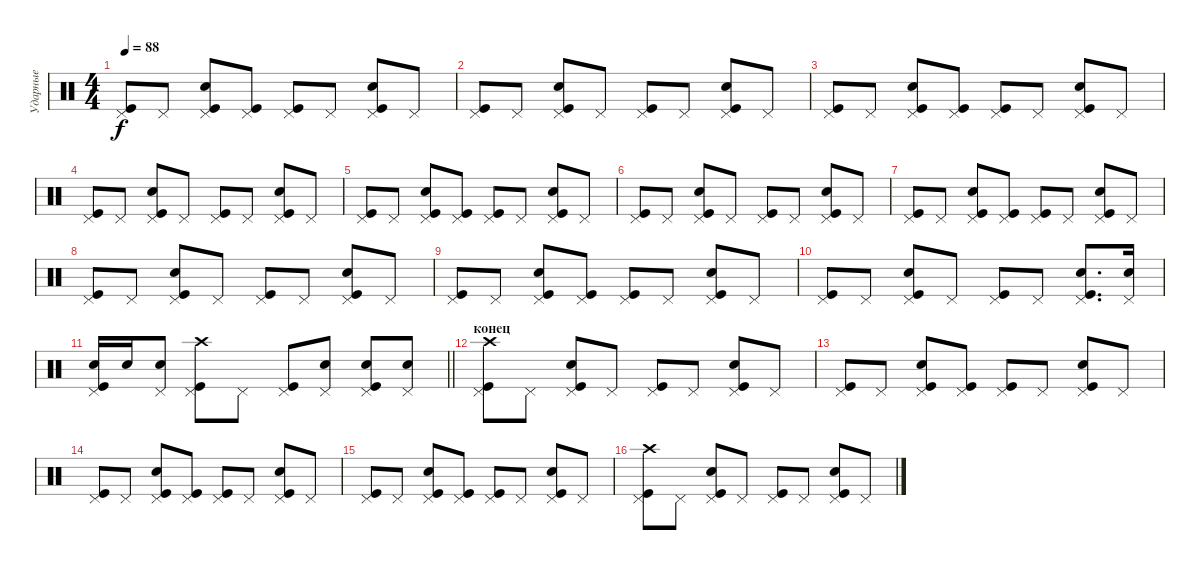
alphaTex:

\track ("Ударные" "Ударные") {instrument percussion}
\staff {score}
\articulation defaults
\ts (4 4)
\tempo 88
\clef neutral
\ks c
("Pedal Hi-Hat (hit)" "Kick (hit)").8{dy f} "Pedal Hi-Hat (hit)".8 ("Pedal Hi-Hat (hit)" "Kick (hit)" "Snare (hit) 2").8 ("Pedal Hi-Hat (hit)" "Kick (hit)").8 ("Pedal Hi-Hat (hit)" "Kick (hit)").8 "Pedal Hi-Hat (hit)".8 ("Pedal Hi-Hat (hit)" "Kick (hit)" "Snare (hit) 2").8 "Pedal Hi-Hat (hit)".8 |
("Pedal Hi-Hat (hit)" "Kick (hit)").8 "Pedal Hi-Hat (hit)".8 ("Pedal Hi-Hat (hit)" "Kick (hit)" "Snare (hit) 2").8 "Pedal Hi-Hat (hit)".8 ("Pedal Hi-Hat (hit)" "Kick (hit)").8 "Pedal Hi-Hat (hit)".8 ("Pedal Hi-Hat (hit)" "Kick (hit)" "Snare (hit) 2").8 "Pedal Hi-Hat (hit)".8 |
("Pedal Hi-Hat (hit)" "Kick (hit)").8 "Pedal Hi-Hat (hit)".8 ("Pedal Hi-Hat (hit)" "Kick (hit)" "Snare (hit) 2").8 ("Pedal Hi-Hat (hit)" "Kick (hit)").8 ("Pedal Hi-Hat (hit)" "Kick (hit)").8 "Pedal Hi-Hat (hit)".8 ("Pedal Hi-Hat (hit)" "Kick (hit)" "Snare (hit) 2").8 "Pedal Hi-Hat (hit)".8 |
("Pedal Hi-Hat (hit)" "Kick (hit)").8 "Pedal Hi-Hat (hit)".8 ("Pedal Hi-Hat (hit)" "Kick (hit)" "Snare (hit) 2").8 "Pedal Hi-Hat (hit)".8 ("Pedal Hi-Hat (hit)" "Kick (hit)").8 "Pedal Hi-Hat (hit)".8 ("Pedal Hi-Hat (hit)" "Kick (hit)" "Snare (hit) 2").8 "Pedal Hi-Hat (hit)".8 |
("Pedal Hi-Hat (hit)" "Kick (hit)").8 "Pedal Hi-Hat (hit)".8 ("Pedal Hi-Hat (hit)" "Kick (hit)" "Snare (hit) 2").8 ("Pedal Hi-Hat (hit)" "Kick (hit)").8 ("Pedal Hi-Hat (hit)" "Kick (hit)").8 "Pedal Hi-Hat (hit)".8 ("Pedal Hi-Hat (hit)" "Kick (hit)" "Snare (hit) 2").8 "Pedal Hi-Hat (hit)".8 |
("Pedal Hi-Hat (hit)" "Kick (hit)").8 "Pedal Hi-Hat (hit)".8 ("Pedal Hi-Hat (hit)" "Kick (hit)" "Snare (hit) 2").8 "Pedal Hi-Hat (hit)".8 ("Pedal Hi-Hat (hit)" "Kick (hit)").8 "Pedal Hi-Hat (hit)".8 ("Pedal Hi-Hat (hit)" "Kick (hit)" "Snare (hit) 2").8 "Pedal Hi-Hat (hit)".8 |
("Pedal Hi-Hat (hit)" "Kick (hit)").8 "Pedal Hi-Hat (hit)".8 ("Pedal Hi-Hat (hit)" "Kick (hit)" "Snare (hit) 2").8 ("Pedal Hi-Hat (hit)" "Kick (hit)").8 ("Pedal Hi-Hat (hit)" "Kick (hit)").8 "Pedal Hi-Hat (hit)".8 ("Pedal Hi-Hat (hit)" "Kick (hit)" "Snare (hit) 2").8 "Pedal Hi-Hat (hit)".8 |
("Pedal Hi-Hat (hit)" "Kick (hit)").8 "Pedal Hi-Hat (hit)".8 ("Pedal Hi-Hat (hit)" "Kick (hit)" "Snare (hit) 2").8 "Pedal Hi-Hat (hit)".8 ("Pedal Hi-Hat (hit)" "Kick (hit)").8 "Pedal Hi-Hat (hit)".8 ("Pedal Hi-Hat (hit)" "Kick (hit)" "Snare (hit) 2").8 "Pedal Hi-Hat (hit)".8 |
("Pedal Hi-Hat (hit)" "Kick (hit)").8 "Pedal Hi-Hat (hit)".8 ("Pedal Hi-Hat (hit)" "Kick (hit)" "Snare (hit) 2").8 ("Pedal Hi-Hat (hit)" "Kick (hit)").8 ("Pedal Hi-Hat (hit)" "Kick (hit)").8 "Pedal Hi-Hat (hit)".8 ("Pedal Hi-Hat (hit)" "Kick (hit)" "Snare (hit) 2").8 "Pedal Hi-Hat (hit)".8 |
("Pedal Hi-Hat (hit)" "Kick (hit)").8 "Pedal Hi-Hat (hit)".8 ("Pedal Hi-Hat (hit)" "Kick (hit)" "Snare (hit) 2").8 "Pedal Hi-Hat (hit)".8 ("Pedal Hi-Hat (hit)" "Kick (hit)").8 "Pedal Hi-Hat (hit)".8 ("Pedal Hi-Hat (hit)" "Kick (hit)" "Snare (hit) 2").8{d} ("Pedal Hi-Hat (hit)" "Snare (hit) 2").16 |
\barLineRight lightlight
("Snare (hit) 2" "Kick (hit)" "Pedal Hi-Hat (hit)").16 "Snare (hit) 2".16 ("Snare (hit) 2" "Pedal Hi-Hat (hit)").8 ("Pedal Hi-Hat (hit)" "Kick (hit)" "Crash high (hit)").8 "Pedal Hi-Hat (hit)".8 ("Pedal Hi-Hat (hit)" "Kick (hit)").8 ("Snare (hit) 2" "Pedal Hi-Hat (hit)").8 ("Snare (hit) 2" "Pedal Hi-Hat (hit)" "Kick (hit)").8 ("Snare (hit) 2" "Pedal Hi-Hat (hit)").8 |
\section ("" "конец")
("Pedal Hi-Hat (hit)" "Kick (hit)" "Crash high (hit)").8 "Pedal Hi-Hat (hit)".8 ("Pedal Hi-Hat (hit)" "Kick (hit)" "Snare (hit) 2").8 "Pedal Hi-Hat (hit)".8 ("Pedal Hi-Hat (hit)" "Kick (hit)").8 "Pedal Hi-Hat (hit)".8 ("Pedal Hi-Hat (hit)" "Kick (hit)" "Snare (hit) 2").8 "Pedal Hi-Hat (hit)".8 |
("Pedal Hi-Hat (hit)" "Kick (hit)").8 "Pedal Hi-Hat (hit)".8 ("Pedal Hi-Hat (hit)" "Kick (hit)" "Snare (hit) 2").8 ("Pedal Hi-Hat (hit)" "Kick (hit)").8 ("Pedal Hi-Hat (hit)" "Kick (hit)").8 "Pedal Hi-Hat (hit)".8 ("Pedal Hi-Hat (hit)" "Kick (hit)" "Snare (hit) 2").8 "Pedal Hi-Hat (hit)".8 |
("Pedal Hi-Hat (hit)" "Kick (hit)").8 "Pedal Hi-Hat (hit)".8 ("Pedal Hi-Hat (hit)" "Kick (hit)" "Snare (hit) 2").8 ("Pedal Hi-Hat (hit)" "Kick (hit)").8 ("Pedal Hi-Hat (hit)" "Kick (hit)").8 "Pedal Hi-Hat (hit)".8 ("Pedal Hi-Hat (hit)" "Kick (hit)" "Snare (hit) 2").8 "Pedal Hi-Hat (hit)".8 |
("Pedal Hi-Hat (hit)" "Kick (hit)").8 "Pedal Hi-Hat (hit)".8 ("Pedal Hi-Hat (hit)" "Kick (hit)" "Snare (hit) 2").8 ("Pedal Hi-Hat (hit)" "Kick (hit)").8 ("Pedal Hi-Hat (hit)" "Kick (hit)").8 "Pedal Hi-Hat (hit)".8 ("Pedal Hi-Hat (hit)" "Kick (hit)" "Snare (hit) 2").8 "Pedal Hi-Hat (hit)".8 |
("Pedal Hi-Hat (hit)" "Kick (hit)" "Crash high (hit)").8 "Pedal Hi-Hat (hit)".8 ("Pedal Hi-Hat (hit)" "Kick (hit)" "Snare (hit) 2").8 "Pedal Hi-Hat (hit)".8 ("Pedal Hi-Hat (hit)" "Kick (hit)").8 "Pedal Hi-Hat (hit)".8 ("Pedal Hi-Hat (hit)" "Kick (hit)" "Snare (hit) 2").8 "Pedal Hi-Hat (hit)".8
